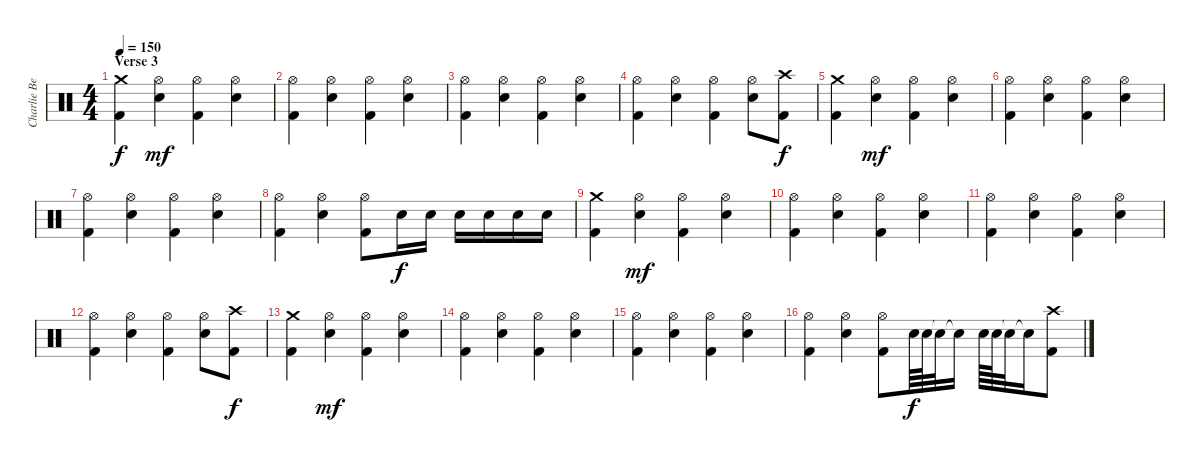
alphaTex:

\track ("Charlie Benante" "Charlie Be") {instrument percussion}
\staff {score}
\articulation defaults
\ts (4 4)
\section ("" "Verse 3")
\tempo 150
\clef neutral
\ks c
("Kick (hit) 2" "Crash medium (hit)").4{dy f} ("Hi-Hat (open)" "Snare (hit) 2").4{dy mf} ("Kick (hit) 2" "Hi-Hat (open)").4 ("Hi-Hat (open)" "Snare (hit) 2").4 |
("Kick (hit) 2" "Hi-Hat (open)").4 ("Hi-Hat (open)" "Snare (hit) 2").4 ("Kick (hit) 2" "Hi-Hat (open)").4 ("Hi-Hat (open)" "Snare (hit) 2").4 |
("Kick (hit) 2" "Hi-Hat (open)").4 ("Hi-Hat (open)" "Snare (hit) 2").4 ("Kick (hit) 2" "Hi-Hat (open)").4 ("Hi-Hat (open)" "Snare (hit) 2").4 |
("Kick (hit) 2" "Hi-Hat (open)").4 ("Hi-Hat (open)" "Snare (hit) 2").4 ("Kick (hit) 2" "Hi-Hat (open)").4 ("Hi-Hat (open)" "Snare (hit) 2").8 ("Kick (hit) 2" "Crash high (hit)").8{dy f} |
("Kick (hit) 2" "Crash medium (hit)").4 ("Hi-Hat (open)" "Snare (hit) 2").4{dy mf} ("Kick (hit) 2" "Hi-Hat (open)").4 ("Hi-Hat (open)" "Snare (hit) 2").4 |
("Kick (hit) 2" "Hi-Hat (open)").4 ("Hi-Hat (open)" "Snare (hit) 2").4 ("Kick (hit) 2" "Hi-Hat (open)").4 ("Hi-Hat (open)" "Snare (hit) 2").4 |
("Kick (hit) 2" "Hi-Hat (open)").4 ("Hi-Hat (open)" "Snare (hit) 2").4 ("Kick (hit) 2" "Hi-Hat (open)").4 ("Hi-Hat (open)" "Snare (hit) 2").4 |
("Kick (hit) 2" "Hi-Hat (open)").4 ("Hi-Hat (open)" "Snare (hit) 2").4 ("Kick (hit) 2" "Hi-Hat (open)").8 "Snare (hit) 2".16{dy f} "Snare (hit) 2".16 "Snare (hit) 2".16 "Snare (hit) 2".16 "Snare (hit) 2".16 "Snare (hit) 2".16 |
("Kick (hit) 2" "Crash medium (hit)").4 ("Hi-Hat (open)" "Snare (hit) 2").4{dy mf} ("Kick (hit) 2" "Hi-Hat (open)").4 ("Hi-Hat (open)" "Snare (hit) 2").4 |
("Kick (hit) 2" "Hi-Hat (open)").4 ("Hi-Hat (open)" "Snare (hit) 2").4 ("Kick (hit) 2" "Hi-Hat (open)").4 ("Hi-Hat (open)" "Snare (hit) 2").4 |
("Kick (hit) 2" "Hi-Hat (open)").4 ("Hi-Hat (open)" "Snare (hit) 2").4 ("Kick (hit) 2" "Hi-Hat (open)").4 ("Hi-Hat (open)" "Snare (hit) 2").4 |
("Kick (hit) 2" "Hi-Hat (open)").4 ("Hi-Hat (open)" "Snare (hit) 2").4 ("Kick (hit) 2" "Hi-Hat (open)").4 ("Hi-Hat (open)" "Snare (hit) 2").8 ("Kick (hit) 2" "Crash high (hit)").8{dy f} |
("Kick (hit) 2" "Crash medium (hit)").4 ("Hi-Hat (open)" "Snare (hit) 2").4{dy mf} ("Kick (hit) 2" "Hi-Hat (open)").4 ("Hi-Hat (open)" "Snare (hit) 2").4 |
("Kick (hit) 2" "Hi-Hat (open)").4 ("Hi-Hat (open)" "Snare (hit) 2").4 ("Kick (hit) 2" "Hi-Hat (open)").4 ("Hi-Hat (open)" "Snare (hit) 2").4 |
("Kick (hit) 2" "Hi-Hat (open)").4 ("Hi-Hat (open)" "Snare (hit) 2").4 ("Kick (hit) 2" "Hi-Hat (open)").4 ("Hi-Hat (open)" "Snare (hit) 2").4 |
("Kick (hit) 2" "Hi-Hat (open)").4 ("Hi-Hat (open)" "Snare (hit) 2").4 ("Kick (hit) 2" "Hi-Hat (open)").8 "Snare (hit) 2".64{dy f} "Snare (hit) 2".64 "Snare (hit)"{t}.32 "Snare (hit)"{t}.16 "Snare (hit) 2".64 "Snare (hit) 2".64 "Snare (hit)"{t}.32 "Snare (hit)"{t}.16 ("Kick (hit) 2" "Crash high (hit)").8
